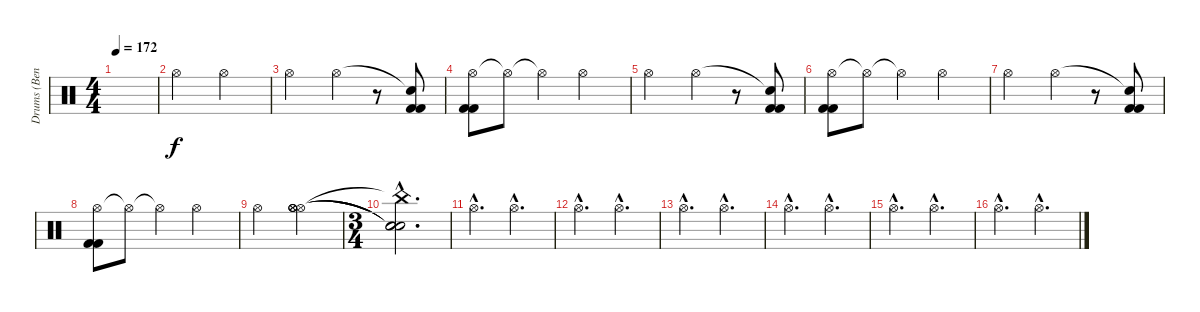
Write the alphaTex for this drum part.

\track ("Drums (Ben)" "Drums (Ben") {instrument percussion}
\staff {score}
\articulation defaults
\ts (4 4)
\tempo 172
\clef neutral
\ks c
|
"Hi-Hat (open)".2 "Hi-Hat (open)".2 |
"Hi-Hat (open)".2 "Hi-Hat (open)".4 r.8 ("Snare (hit)"{t} "Kick (hit) 2" "Kick (hit) 2").8 |
("Hi-Hat (open)" "Kick (hit) 2" "Kick (hit) 2").8 "Hi-Hat (open)"{t}.8 "Hi-Hat (open)"{t}.4 "Hi-Hat (open)".2 |
"Hi-Hat (open)".2 "Hi-Hat (open)".4 r.8 ("Snare (hit)"{t} "Kick (hit) 2" "Kick (hit) 2").8 |
("Hi-Hat (open)" "Kick (hit) 2" "Kick (hit) 2").8 "Hi-Hat (open)"{t}.8 "Hi-Hat (open)"{t}.4 "Hi-Hat (open)".2 |
"Hi-Hat (open)".2 "Hi-Hat (open)".4 r.8 ("Snare (hit)"{t} "Kick (hit) 2" "Kick (hit) 2").8 |
("Hi-Hat (open)" "Kick (hit) 2" "Kick (hit) 2").8 "Hi-Hat (open)"{t}.8 "Hi-Hat (open)"{t}.4 "Hi-Hat (open)".2 |
"Hi-Hat (open)".2 ("Hi-Hat (open)" "Hi-Hat (open)" "Hi-Hat (open)" "Hi-Hat (open)").2 |
\ts (3 4)
("China (hit)"{hac t} "Snare (hit)"{hac t} "Snare (hit)"{hac t} "Snare (hit)"{hac t}).2{d} |
"Hi-Hat (open)"{hac}.4{d} "Hi-Hat (open)"{hac}.4{d} |
"Hi-Hat (open)"{hac}.4{d} "Hi-Hat (open)"{hac}.4{d} |
"Hi-Hat (open)"{hac}.4{d} "Hi-Hat (open)"{hac}.4{d} |
"Hi-Hat (open)"{hac}.4{d} "Hi-Hat (open)"{hac}.4{d} |
"Hi-Hat (open)"{hac}.4{d} "Hi-Hat (open)"{hac}.4{d} |
"Hi-Hat (open)"{hac}.4{d} "Hi-Hat (open)"{hac}.4{d}
